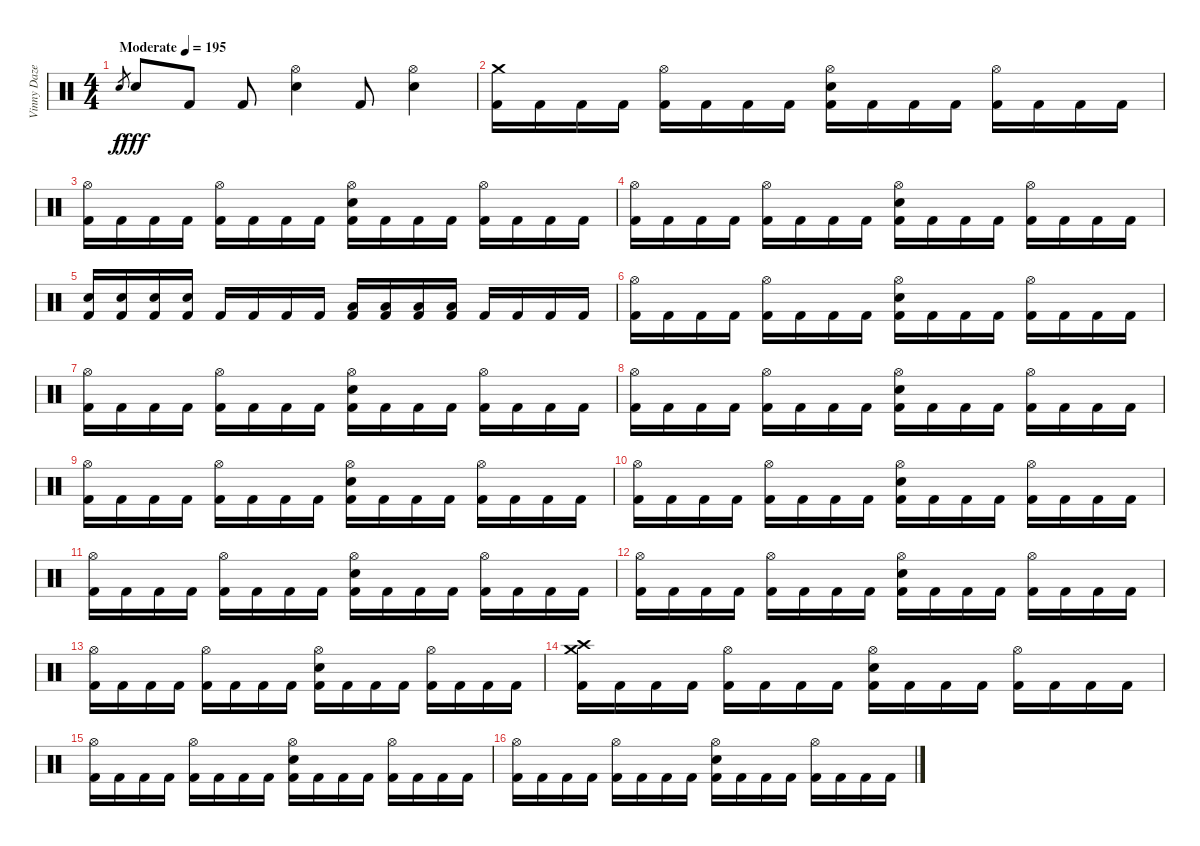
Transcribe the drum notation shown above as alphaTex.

\track ("Vinny Daze (R.I.P.)" "Vinny Daze") {instrument percussion}
\staff {score}
\articulation defaults
\ts (4 4)
\tempo (195 "Moderate")
\clef neutral
\ks c "Electric Snare (hit)".8{gr dy f} "Electric Snare (hit)".8{dy fff} "Kick (hit) 2".8 "Kick (hit) 2".8
("Hi-Hat (open)" "Electric Snare (hit)").4 "Kick (hit) 2".8 ("Hi-Hat (open)" "Electric Snare (hit)").4 |
("Crash medium (hit)" "Kick (hit) 2").16 "Kick (hit) 2".16 "Kick (hit) 2".16 "Kick (hit) 2".16 ("Hi-Hat (open)" "Kick (hit) 2").16 "Kick (hit) 2".16 "Kick (hit) 2".16 "Kick (hit) 2".16 ("Hi-Hat (open)" "Electric Snare (hit)" "Kick (hit) 2").16 "Kick (hit) 2".16 "Kick (hit) 2".16 "Kick (hit) 2".16 ("Hi-Hat (open)" "Kick (hit) 2").16 "Kick (hit) 2".16 "Kick (hit) 2".16 "Kick (hit) 2".16 |
("Hi-Hat (open)" "Kick (hit) 2").16 "Kick (hit) 2".16 "Kick (hit) 2".16 "Kick (hit) 2".16 ("Hi-Hat (open)" "Kick (hit) 2").16 "Kick (hit) 2".16 "Kick (hit) 2".16 "Kick (hit) 2".16 ("Hi-Hat (open)" "Electric Snare (hit)" "Kick (hit) 2").16 "Kick (hit) 2".16 "Kick (hit) 2".16 "Kick (hit) 2".16 ("Hi-Hat (open)" "Kick (hit) 2").16 "Kick (hit) 2".16 "Kick (hit) 2".16 "Kick (hit) 2".16 |
("Hi-Hat (open)" "Kick (hit) 2").16 "Kick (hit) 2".16 "Kick (hit) 2".16 "Kick (hit) 2".16 ("Hi-Hat (open)" "Kick (hit) 2").16 "Kick (hit) 2".16 "Kick (hit) 2".16 "Kick (hit) 2".16 ("Hi-Hat (open)" "Electric Snare (hit)" "Kick (hit) 2").16 "Kick (hit) 2".16 "Kick (hit) 2".16 "Kick (hit) 2".16 ("Hi-Hat (open)" "Kick (hit) 2").16 "Kick (hit) 2".16 "Kick (hit) 2".16 "Kick (hit) 2".16 |
("Electric Snare (hit)" "Kick (hit) 2").16 ("Electric Snare (hit)" "Kick (hit) 2").16 ("Electric Snare (hit)" "Kick (hit) 2").16 ("Electric Snare (hit)" "Kick (hit) 2").16 "Kick (hit) 2".16 "Kick (hit) 2".16 "Kick (hit) 2".16 "Kick (hit) 2".16 ("Low Tom (hit)" "Kick (hit) 2").16 ("Low Tom (hit)" "Kick (hit) 2").16 ("Low Tom (hit)" "Kick (hit) 2").16 ("Low Tom (hit)" "Kick (hit) 2").16 "Kick (hit) 2".16 "Kick (hit) 2".16 "Kick (hit) 2".16 "Kick (hit) 2".16 |
("Hi-Hat (open)" "Kick (hit) 2").16 "Kick (hit) 2".16 "Kick (hit) 2".16 "Kick (hit) 2".16 ("Hi-Hat (open)" "Kick (hit) 2").16 "Kick (hit) 2".16 "Kick (hit) 2".16 "Kick (hit) 2".16 ("Hi-Hat (open)" "Electric Snare (hit)" "Kick (hit) 2").16 "Kick (hit) 2".16 "Kick (hit) 2".16 "Kick (hit) 2".16 ("Hi-Hat (open)" "Kick (hit) 2").16 "Kick (hit) 2".16 "Kick (hit) 2".16 "Kick (hit) 2".16 |
("Hi-Hat (open)" "Kick (hit) 2").16 "Kick (hit) 2".16 "Kick (hit) 2".16 "Kick (hit) 2".16 ("Hi-Hat (open)" "Kick (hit) 2").16 "Kick (hit) 2".16 "Kick (hit) 2".16 "Kick (hit) 2".16 ("Hi-Hat (open)" "Electric Snare (hit)" "Kick (hit) 2").16 "Kick (hit) 2".16 "Kick (hit) 2".16 "Kick (hit) 2".16 ("Hi-Hat (open)" "Kick (hit) 2").16 "Kick (hit) 2".16 "Kick (hit) 2".16 "Kick (hit) 2".16 |
("Hi-Hat (open)" "Kick (hit) 2").16 "Kick (hit) 2".16 "Kick (hit) 2".16 "Kick (hit) 2".16 ("Hi-Hat (open)" "Kick (hit) 2").16 "Kick (hit) 2".16 "Kick (hit) 2".16 "Kick (hit) 2".16 ("Hi-Hat (open)" "Electric Snare (hit)" "Kick (hit) 2").16 "Kick (hit) 2".16 "Kick (hit) 2".16 "Kick (hit) 2".16 ("Hi-Hat (open)" "Kick (hit) 2").16 "Kick (hit) 2".16 "Kick (hit) 2".16 "Kick (hit) 2".16 |
("Hi-Hat (open)" "Kick (hit) 2").16 "Kick (hit) 2".16 "Kick (hit) 2".16 "Kick (hit) 2".16 ("Hi-Hat (open)" "Kick (hit) 2").16 "Kick (hit) 2".16 "Kick (hit) 2".16 "Kick (hit) 2".16 ("Hi-Hat (open)" "Electric Snare (hit)" "Kick (hit) 2").16 "Kick (hit) 2".16 "Kick (hit) 2".16 "Kick (hit) 2".16 ("Hi-Hat (open)" "Kick (hit) 2").16 "Kick (hit) 2".16 "Kick (hit) 2".16 "Kick (hit) 2".16 |
("Hi-Hat (open)" "Kick (hit) 2").16 "Kick (hit) 2".16 "Kick (hit) 2".16 "Kick (hit) 2".16 ("Hi-Hat (open)" "Kick (hit) 2").16 "Kick (hit) 2".16 "Kick (hit) 2".16 "Kick (hit) 2".16 ("Hi-Hat (open)" "Electric Snare (hit)" "Kick (hit) 2").16 "Kick (hit) 2".16 "Kick (hit) 2".16 "Kick (hit) 2".16 ("Hi-Hat (open)" "Kick (hit) 2").16 "Kick (hit) 2".16 "Kick (hit) 2".16 "Kick (hit) 2".16 |
("Hi-Hat (open)" "Kick (hit) 2").16 "Kick (hit) 2".16 "Kick (hit) 2".16 "Kick (hit) 2".16 ("Hi-Hat (open)" "Kick (hit) 2").16 "Kick (hit) 2".16 "Kick (hit) 2".16 "Kick (hit) 2".16 ("Hi-Hat (open)" "Electric Snare (hit)" "Kick (hit) 2").16 "Kick (hit) 2".16 "Kick (hit) 2".16 "Kick (hit) 2".16 ("Hi-Hat (open)" "Kick (hit) 2").16 "Kick (hit) 2".16 "Kick (hit) 2".16 "Kick (hit) 2".16 |
("Hi-Hat (open)" "Kick (hit) 2").16 "Kick (hit) 2".16 "Kick (hit) 2".16 "Kick (hit) 2".16 ("Hi-Hat (open)" "Kick (hit) 2").16 "Kick (hit) 2".16 "Kick (hit) 2".16 "Kick (hit) 2".16 ("Hi-Hat (open)" "Electric Snare (hit)" "Kick (hit) 2").16 "Kick (hit) 2".16 "Kick (hit) 2".16 "Kick (hit) 2".16 ("Hi-Hat (open)" "Kick (hit) 2").16 "Kick (hit) 2".16 "Kick (hit) 2".16 "Kick (hit) 2".16 |
("Hi-Hat (open)" "Kick (hit) 2").16 "Kick (hit) 2".16 "Kick (hit) 2".16 "Kick (hit) 2".16 ("Hi-Hat (open)" "Kick (hit) 2").16 "Kick (hit) 2".16 "Kick (hit) 2".16 "Kick (hit) 2".16 ("Hi-Hat (open)" "Electric Snare (hit)" "Kick (hit) 2").16 "Kick (hit) 2".16 "Kick (hit) 2".16 "Kick (hit) 2".16 ("Hi-Hat (open)" "Kick (hit) 2").16 "Kick (hit) 2".16 "Kick (hit) 2".16 "Kick (hit) 2".16 |
("Crash medium (hit)" "Crash high (hit)" "Kick (hit) 2").16 "Kick (hit) 2".16 "Kick (hit) 2".16 "Kick (hit) 2".16 ("Hi-Hat (open)" "Kick (hit) 2").16 "Kick (hit) 2".16 "Kick (hit) 2".16 "Kick (hit) 2".16 ("Hi-Hat (open)" "Electric Snare (hit)" "Kick (hit) 2").16 "Kick (hit) 2".16 "Kick (hit) 2".16 "Kick (hit) 2".16 ("Hi-Hat (open)" "Kick (hit) 2").16 "Kick (hit) 2".16 "Kick (hit) 2".16 "Kick (hit) 2".16 |
("Hi-Hat (open)" "Kick (hit) 2").16 "Kick (hit) 2".16 "Kick (hit) 2".16 "Kick (hit) 2".16 ("Hi-Hat (open)" "Kick (hit) 2").16 "Kick (hit) 2".16 "Kick (hit) 2".16 "Kick (hit) 2".16 ("Hi-Hat (open)" "Electric Snare (hit)" "Kick (hit) 2").16 "Kick (hit) 2".16 "Kick (hit) 2".16 "Kick (hit) 2".16 ("Hi-Hat (open)" "Kick (hit) 2").16 "Kick (hit) 2".16 "Kick (hit) 2".16 "Kick (hit) 2".16 |
("Hi-Hat (open)" "Kick (hit) 2").16 "Kick (hit) 2".16 "Kick (hit) 2".16 "Kick (hit) 2".16 ("Hi-Hat (open)" "Kick (hit) 2").16 "Kick (hit) 2".16 "Kick (hit) 2".16 "Kick (hit) 2".16 ("Hi-Hat (open)" "Electric Snare (hit)" "Kick (hit) 2").16 "Kick (hit) 2".16 "Kick (hit) 2".16 "Kick (hit) 2".16 ("Hi-Hat (open)" "Kick (hit) 2").16 "Kick (hit) 2".16 "Kick (hit) 2".16 "Kick (hit) 2".16
